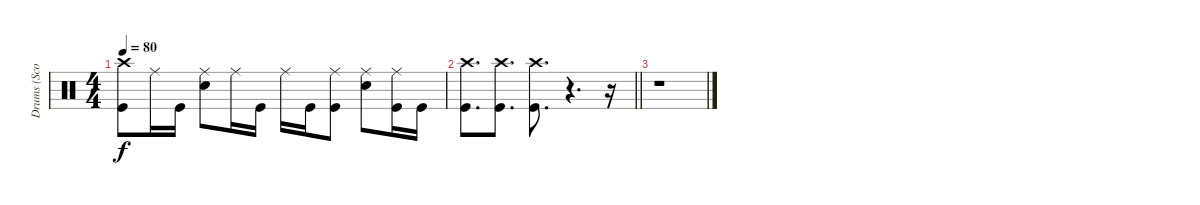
\track ("Drums (Scott Phillips)" "Drums (Sco") {instrument percussion}
\staff {score}
\articulation defaults
\ts (4 4)
\tempo 80
\clef neutral
\ks c
("Crash high (hit)" "Kick (hit)").8{dy f} "Ride (middle)".16 "Kick (hit)".16 ("Ride (middle)" "Snare (hit) 2").8 "Ride (middle)".16 "Kick (hit)".16 "Ride (middle)".16 "Kick (hit)".16 ("Ride (middle)" "Kick (hit)").8 ("Ride (middle)" "Snare (hit) 2").8 ("Ride (middle)" "Kick (hit)").16 "Kick (hit)".16 |
\barLineRight lightlight
("Crash high (hit)" "Kick (hit)").8{d} ("Crash high (hit)" "Kick (hit)").8{d} ("Crash high (hit)" "Kick (hit)").8{d} r.4{d} r.16 |
r.1
